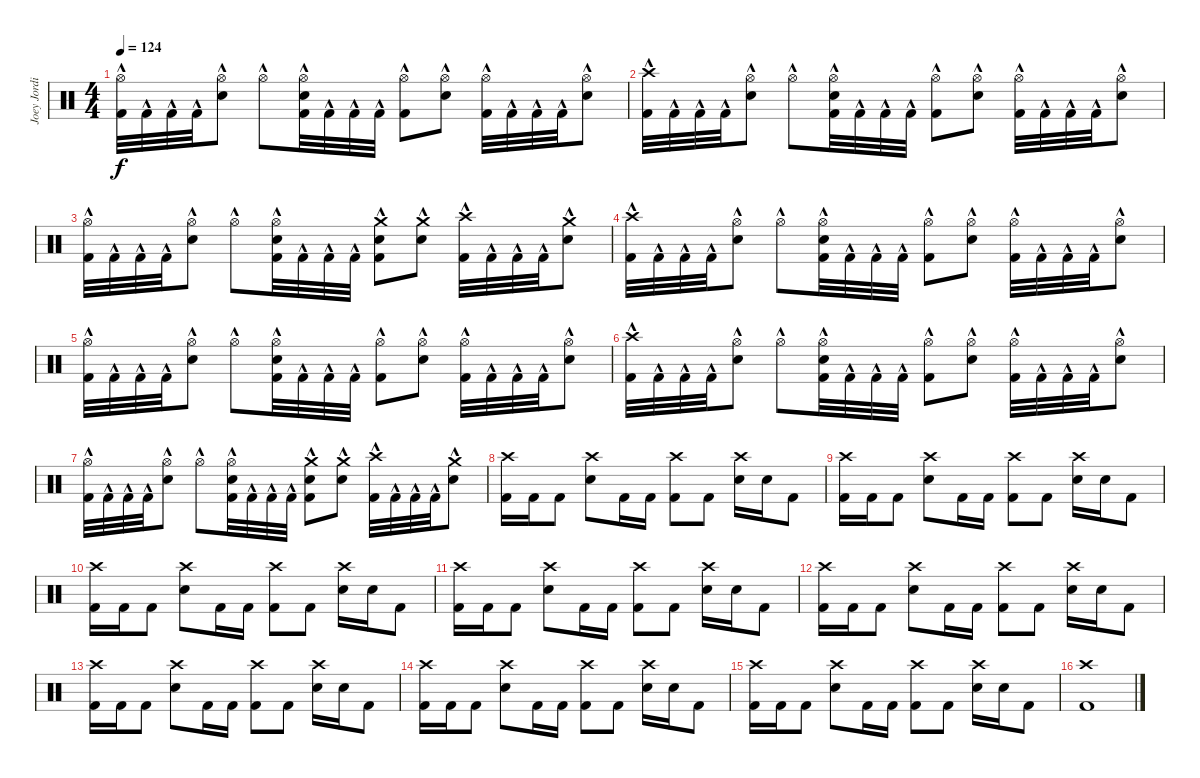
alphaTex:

\track ("Joey Jordison" "Joey Jordi") {instrument percussion}
\staff
\articulation defaults
\ts (4 4)
\tempo 124
\clef neutral
\ks c
("Hi-Hat (open)"{hac} "Kick (hit) 2"{hac}).32{dy f} "Kick (hit) 2"{hac}.32 "Kick (hit) 2"{hac}.32 "Kick (hit) 2"{hac}.32 ("Hi-Hat (open)"{hac} "Electric Snare (hit)"{hac}).8 "Hi-Hat (open)"{hac}.8 ("Hi-Hat (open)"{hac} "Electric Snare (hit)"{hac} "Kick (hit) 2"{hac}).32 "Kick (hit) 2"{hac}.32 "Kick (hit) 2"{hac}.32 "Kick (hit) 2"{hac}.32 ("Hi-Hat (open)"{hac} "Kick (hit) 2"{hac}).8 ("Hi-Hat (open)"{hac} "Electric Snare (hit)"{hac}).8 ("Hi-Hat (open)"{hac} "Kick (hit) 2"{hac}).32 "Kick (hit) 2"{hac}.32 "Kick (hit) 2"{hac}.32 "Kick (hit) 2"{hac}.32 ("Hi-Hat (open)"{hac} "Electric Snare (hit)"{hac}).8 |
("Crash high (hit)"{hac} "Kick (hit) 2"{hac}).32 "Kick (hit) 2"{hac}.32 "Kick (hit) 2"{hac}.32 "Kick (hit) 2"{hac}.32 ("Hi-Hat (open)"{hac} "Electric Snare (hit)"{hac}).8 "Hi-Hat (open)"{hac}.8 ("Hi-Hat (open)"{hac} "Electric Snare (hit)"{hac} "Kick (hit) 2"{hac}).32 "Kick (hit) 2"{hac}.32 "Kick (hit) 2"{hac}.32 "Kick (hit) 2"{hac}.32 ("Hi-Hat (open)"{hac} "Kick (hit) 2"{hac}).8 ("Hi-Hat (open)"{hac} "Electric Snare (hit)"{hac}).8 ("Hi-Hat (open)"{hac} "Kick (hit) 2"{hac}).32 "Kick (hit) 2"{hac}.32 "Kick (hit) 2"{hac}.32 "Kick (hit) 2"{hac}.32 ("Hi-Hat (open)"{hac} "Electric Snare (hit)"{hac}).8 |
("Hi-Hat (open)"{hac} "Kick (hit) 2"{hac}).32 "Kick (hit) 2"{hac}.32 "Kick (hit) 2"{hac}.32 "Kick (hit) 2"{hac}.32 ("Hi-Hat (open)"{hac} "Electric Snare (hit)"{hac}).8 "Hi-Hat (open)"{hac}.8 ("Hi-Hat (open)"{hac} "Electric Snare (hit)"{hac} "Kick (hit) 2"{hac}).32 "Kick (hit) 2"{hac}.32 "Kick (hit) 2"{hac}.32 "Kick (hit) 2"{hac}.32 ("Crash medium (hit)"{hac} "Electric Snare (hit)" "Kick (hit) 2"{hac}).8 ("Crash medium (hit)"{hac} "Electric Snare (hit)"{hac}).8 ("Crash high (hit)"{hac} "Kick (hit) 2"{hac}).32 "Kick (hit) 2"{hac}.32 "Kick (hit) 2"{hac}.32 "Kick (hit) 2"{hac}.32 ("Crash medium (hit)"{hac} "Electric Snare (hit)"{hac}).8 |
("Crash high (hit)"{hac} "Kick (hit) 2"{hac}).32 "Kick (hit) 2"{hac}.32 "Kick (hit) 2"{hac}.32 "Kick (hit) 2"{hac}.32 ("Hi-Hat (open)"{hac} "Electric Snare (hit)"{hac}).8 "Hi-Hat (open)"{hac}.8 ("Hi-Hat (open)"{hac} "Electric Snare (hit)"{hac} "Kick (hit) 2"{hac}).32 "Kick (hit) 2"{hac}.32 "Kick (hit) 2"{hac}.32 "Kick (hit) 2"{hac}.32 ("Hi-Hat (open)"{hac} "Kick (hit) 2"{hac}).8 ("Hi-Hat (open)"{hac} "Electric Snare (hit)"{hac}).8 ("Hi-Hat (open)"{hac} "Kick (hit) 2"{hac}).32 "Kick (hit) 2"{hac}.32 "Kick (hit) 2"{hac}.32 "Kick (hit) 2"{hac}.32 ("Hi-Hat (open)"{hac} "Electric Snare (hit)"{hac}).8 |
("Hi-Hat (open)"{hac} "Kick (hit) 2"{hac}).32 "Kick (hit) 2"{hac}.32 "Kick (hit) 2"{hac}.32 "Kick (hit) 2"{hac}.32 ("Hi-Hat (open)"{hac} "Electric Snare (hit)"{hac}).8 "Hi-Hat (open)"{hac}.8 ("Hi-Hat (open)"{hac} "Electric Snare (hit)"{hac} "Kick (hit) 2"{hac}).32 "Kick (hit) 2"{hac}.32 "Kick (hit) 2"{hac}.32 "Kick (hit) 2"{hac}.32 ("Hi-Hat (open)"{hac} "Kick (hit) 2"{hac}).8 ("Hi-Hat (open)"{hac} "Electric Snare (hit)"{hac}).8 ("Hi-Hat (open)"{hac} "Kick (hit) 2"{hac}).32 "Kick (hit) 2"{hac}.32 "Kick (hit) 2"{hac}.32 "Kick (hit) 2"{hac}.32 ("Hi-Hat (open)"{hac} "Electric Snare (hit)"{hac}).8 |
("Crash high (hit)"{hac} "Kick (hit) 2"{hac}).32 "Kick (hit) 2"{hac}.32 "Kick (hit) 2"{hac}.32 "Kick (hit) 2"{hac}.32 ("Hi-Hat (open)"{hac} "Electric Snare (hit)"{hac}).8 "Hi-Hat (open)"{hac}.8 ("Hi-Hat (open)"{hac} "Electric Snare (hit)"{hac} "Kick (hit) 2"{hac}).32 "Kick (hit) 2"{hac}.32 "Kick (hit) 2"{hac}.32 "Kick (hit) 2"{hac}.32 ("Hi-Hat (open)"{hac} "Kick (hit) 2"{hac}).8 ("Hi-Hat (open)"{hac} "Electric Snare (hit)"{hac}).8 ("Hi-Hat (open)"{hac} "Kick (hit) 2"{hac}).32 "Kick (hit) 2"{hac}.32 "Kick (hit) 2"{hac}.32 "Kick (hit) 2"{hac}.32 ("Hi-Hat (open)"{hac} "Electric Snare (hit)"{hac}).8 |
("Hi-Hat (open)"{hac} "Kick (hit) 2"{hac}).32 "Kick (hit) 2"{hac}.32 "Kick (hit) 2"{hac}.32 "Kick (hit) 2"{hac}.32 ("Hi-Hat (open)"{hac} "Electric Snare (hit)"{hac}).8 "Hi-Hat (open)"{hac}.8 ("Hi-Hat (open)"{hac} "Electric Snare (hit)"{hac} "Kick (hit) 2"{hac}).32 "Kick (hit) 2"{hac}.32 "Kick (hit) 2"{hac}.32 "Kick (hit) 2"{hac}.32 ("Crash medium (hit)"{hac} "Electric Snare (hit)" "Kick (hit) 2"{hac}).8 ("Crash medium (hit)"{hac} "Electric Snare (hit)"{hac}).8 ("Crash high (hit)"{hac} "Kick (hit) 2"{hac}).32 "Kick (hit) 2"{hac}.32 "Kick (hit) 2"{hac}.32 "Kick (hit) 2"{hac}.32 ("Crash medium (hit)"{hac} "Electric Snare (hit)"{hac}).8 |
("Crash high (hit)" "Kick (hit) 2").16 "Kick (hit) 2".16 "Kick (hit) 2".8 ("Crash high (hit)" "Electric Snare (hit)").8 "Kick (hit) 2".16 "Kick (hit) 2".16 ("Crash high (hit)" "Kick (hit) 2").8 "Kick (hit) 2".8 ("Crash high (hit)" "Electric Snare (hit)").16 "Electric Snare (hit)".16 "Kick (hit) 2".8 |
("Crash high (hit)" "Kick (hit) 2").16 "Kick (hit) 2".16 "Kick (hit) 2".8 ("Crash high (hit)" "Electric Snare (hit)").8 "Kick (hit) 2".16 "Kick (hit) 2".16 ("Crash high (hit)" "Kick (hit) 2").8 "Kick (hit) 2".8 ("Crash high (hit)" "Electric Snare (hit)").16 "Electric Snare (hit)".16 "Kick (hit) 2".8 |
("Crash high (hit)" "Kick (hit) 2").16 "Kick (hit) 2".16 "Kick (hit) 2".8 ("Crash high (hit)" "Electric Snare (hit)").8 "Kick (hit) 2".16 "Kick (hit) 2".16 ("Crash high (hit)" "Kick (hit) 2").8 "Kick (hit) 2".8 ("Crash high (hit)" "Electric Snare (hit)").16 "Electric Snare (hit)".16 "Kick (hit) 2".8 |
("Crash high (hit)" "Kick (hit) 2").16 "Kick (hit) 2".16 "Kick (hit) 2".8 ("Crash high (hit)" "Electric Snare (hit)").8 "Kick (hit) 2".16 "Kick (hit) 2".16 ("Crash high (hit)" "Kick (hit) 2").8 "Kick (hit) 2".8 ("Crash high (hit)" "Electric Snare (hit)").16 "Electric Snare (hit)".16 "Kick (hit) 2".8 |
("Crash high (hit)" "Kick (hit) 2").16 "Kick (hit) 2".16 "Kick (hit) 2".8 ("Crash high (hit)" "Electric Snare (hit)").8 "Kick (hit) 2".16 "Kick (hit) 2".16 ("Crash high (hit)" "Kick (hit) 2").8 "Kick (hit) 2".8 ("Crash high (hit)" "Electric Snare (hit)").16 "Electric Snare (hit)".16 "Kick (hit) 2".8 |
("Crash high (hit)" "Kick (hit) 2").16 "Kick (hit) 2".16 "Kick (hit) 2".8 ("Crash high (hit)" "Electric Snare (hit)").8 "Kick (hit) 2".16 "Kick (hit) 2".16 ("Crash high (hit)" "Kick (hit) 2").8 "Kick (hit) 2".8 ("Crash high (hit)" "Electric Snare (hit)").16 "Electric Snare (hit)".16 "Kick (hit) 2".8 |
("Crash high (hit)" "Kick (hit) 2").16 "Kick (hit) 2".16 "Kick (hit) 2".8 ("Crash high (hit)" "Electric Snare (hit)").8 "Kick (hit) 2".16 "Kick (hit) 2".16 ("Crash high (hit)" "Kick (hit) 2").8 "Kick (hit) 2".8 ("Crash high (hit)" "Electric Snare (hit)").16 "Electric Snare (hit)".16 "Kick (hit) 2".8 |
("Crash high (hit)" "Kick (hit) 2").16 "Kick (hit) 2".16 "Kick (hit) 2".8 ("Crash high (hit)" "Electric Snare (hit)").8 "Kick (hit) 2".16 "Kick (hit) 2".16 ("Crash high (hit)" "Kick (hit) 2").8 "Kick (hit) 2".8 ("Crash high (hit)" "Electric Snare (hit)").16 "Electric Snare (hit)".16 "Kick (hit) 2".8 |
("Crash high (hit)" "Kick (hit) 2").1
